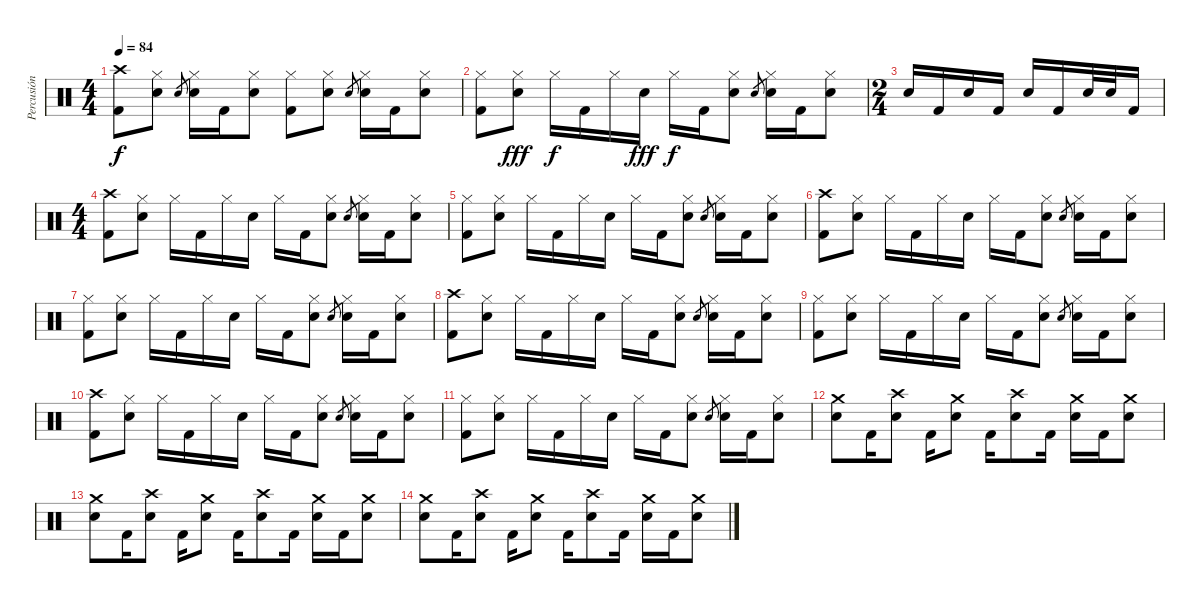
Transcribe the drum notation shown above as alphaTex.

\track ("Percusión" "Percusión") {instrument percussion}
\staff {score}
\articulation defaults
\ts (4 4)
\tempo 84
\clef neutral
\ks c
("Kick (hit) 2" "Crash high (hit)").8{dy f} ("Electric Snare (hit)" "Hi-Hat (closed)").8 "Electric Snare (hit)".8{gr} ("Electric Snare (hit)" "Hi-Hat (closed)").16 "Kick (hit) 2".16 ("Electric Snare (hit)" "Hi-Hat (closed)").8 ("Kick (hit) 2" "Hi-Hat (closed)").8 ("Electric Snare (hit)" "Hi-Hat (closed)").8 "Electric Snare (hit)".8{gr} ("Electric Snare (hit)" "Hi-Hat (closed)").16 "Kick (hit) 2".16 ("Electric Snare (hit)" "Hi-Hat (closed)").8 |
("Kick (hit) 2" "Hi-Hat (closed)").8 ("Electric Snare (hit)" "Hi-Hat (closed)").8{dy fff} "Hi-Hat (closed)".16{dy f} "Kick (hit) 2".16 "Hi-Hat (closed)".16 "Electric Snare (hit)".16{dy fff} "Hi-Hat (closed)".16{dy f} "Kick (hit) 2".16 ("Electric Snare (hit)" "Hi-Hat (closed)").8 "Electric Snare (hit)".8{gr} ("Electric Snare (hit)" "Hi-Hat (closed)").16 "Kick (hit) 2".16 ("Electric Snare (hit)" "Hi-Hat (closed)").8 |
\ts (2 4)
"Electric Snare (hit)".16 "Kick (hit) 2".16 "Electric Snare (hit)".16 "Kick (hit) 2".16 "Electric Snare (hit)".16 "Kick (hit) 2".16 "Electric Snare (hit)".32 "Electric Snare (hit)".32 "Kick (hit) 2".16 |
\ts (4 4)
("Kick (hit) 2" "Crash high (hit)").8 ("Electric Snare (hit)" "Hi-Hat (closed)").8 "Hi-Hat (closed)".16 "Kick (hit) 2".16 "Hi-Hat (closed)".16 "Electric Snare (hit)".16 "Hi-Hat (closed)".16 "Kick (hit) 2".16 ("Electric Snare (hit)" "Hi-Hat (closed)").8 "Electric Snare (hit)".8{gr} ("Electric Snare (hit)" "Hi-Hat (closed)").16 "Kick (hit) 2".16 ("Electric Snare (hit)" "Hi-Hat (closed)").8 |
("Kick (hit) 2" "Hi-Hat (closed)").8 ("Electric Snare (hit)" "Hi-Hat (closed)").8 "Hi-Hat (closed)".16 "Kick (hit) 2".16 "Hi-Hat (closed)".16 "Electric Snare (hit)".16 "Hi-Hat (closed)".16 "Kick (hit) 2".16 ("Electric Snare (hit)" "Hi-Hat (closed)").8 "Electric Snare (hit)".8{gr} ("Electric Snare (hit)" "Hi-Hat (closed)").16 "Kick (hit) 2".16 ("Electric Snare (hit)" "Hi-Hat (closed)").8 |
("Kick (hit) 2" "Crash high (hit)").8 ("Electric Snare (hit)" "Hi-Hat (closed)").8 "Hi-Hat (closed)".16 "Kick (hit) 2".16 "Hi-Hat (closed)".16 "Electric Snare (hit)".16 "Hi-Hat (closed)".16 "Kick (hit) 2".16 ("Electric Snare (hit)" "Hi-Hat (closed)").8 "Electric Snare (hit)".8{gr} ("Electric Snare (hit)" "Hi-Hat (closed)").16 "Kick (hit) 2".16 ("Electric Snare (hit)" "Hi-Hat (closed)").8 |
("Kick (hit) 2" "Hi-Hat (closed)").8 ("Electric Snare (hit)" "Hi-Hat (closed)").8 "Hi-Hat (closed)".16 "Kick (hit) 2".16 "Hi-Hat (closed)".16 "Electric Snare (hit)".16 "Hi-Hat (closed)".16 "Kick (hit) 2".16 ("Electric Snare (hit)" "Hi-Hat (closed)").8 "Electric Snare (hit)".8{gr} ("Electric Snare (hit)" "Hi-Hat (closed)").16 "Kick (hit) 2".16 ("Electric Snare (hit)" "Hi-Hat (closed)").8 |
("Kick (hit) 2" "Crash high (hit)").8 ("Electric Snare (hit)" "Hi-Hat (closed)").8 "Hi-Hat (closed)".16 "Kick (hit) 2".16 "Hi-Hat (closed)".16 "Electric Snare (hit)".16 "Hi-Hat (closed)".16 "Kick (hit) 2".16 ("Electric Snare (hit)" "Hi-Hat (closed)").8 "Electric Snare (hit)".8{gr} ("Electric Snare (hit)" "Hi-Hat (closed)").16 "Kick (hit) 2".16 ("Electric Snare (hit)" "Hi-Hat (closed)").8 |
("Kick (hit) 2" "Hi-Hat (closed)").8 ("Electric Snare (hit)" "Hi-Hat (closed)").8 "Hi-Hat (closed)".16 "Kick (hit) 2".16 "Hi-Hat (closed)".16 "Electric Snare (hit)".16 "Hi-Hat (closed)".16 "Kick (hit) 2".16 ("Electric Snare (hit)" "Hi-Hat (closed)").8 "Electric Snare (hit)".8{gr} ("Electric Snare (hit)" "Hi-Hat (closed)").16 "Kick (hit) 2".16 ("Electric Snare (hit)" "Hi-Hat (closed)").8 |
("Kick (hit) 2" "Crash high (hit)").8 ("Electric Snare (hit)" "Hi-Hat (closed)").8 "Hi-Hat (closed)".16 "Kick (hit) 2".16 "Hi-Hat (closed)".16 "Electric Snare (hit)".16 "Hi-Hat (closed)".16 "Kick (hit) 2".16 ("Electric Snare (hit)" "Hi-Hat (closed)").8 "Electric Snare (hit)".8{gr} ("Electric Snare (hit)" "Hi-Hat (closed)").16 "Kick (hit) 2".16 ("Electric Snare (hit)" "Hi-Hat (closed)").8 |
("Kick (hit) 2" "Hi-Hat (closed)").8 ("Electric Snare (hit)" "Hi-Hat (closed)").8 "Hi-Hat (closed)".16 "Kick (hit) 2".16 "Hi-Hat (closed)".16 "Electric Snare (hit)".16 "Hi-Hat (closed)".16 "Kick (hit) 2".16 ("Electric Snare (hit)" "Hi-Hat (closed)").8 "Electric Snare (hit)".8{gr} ("Electric Snare (hit)" "Hi-Hat (closed)").16 "Kick (hit) 2".16 ("Electric Snare (hit)" "Hi-Hat (closed)").8 |
("Electric Snare (hit)" "Crash medium (hit)").8 "Kick (hit) 2".16 ("Electric Snare (hit)" "Crash high (hit)").8 "Kick (hit) 2".16 ("Electric Snare (hit)" "Crash medium (hit)").8 "Kick (hit) 2".16 ("Electric Snare (hit)" "Crash high (hit)").8 "Kick (hit) 2".16 ("Electric Snare (hit)" "Crash medium (hit)").16 "Kick (hit) 2".16 ("Electric Snare (hit)" "Crash medium (hit)").8 |
("Electric Snare (hit)" "Crash medium (hit)").8 "Kick (hit) 2".16 ("Electric Snare (hit)" "Crash high (hit)").8 "Kick (hit) 2".16 ("Electric Snare (hit)" "Crash medium (hit)").8 "Kick (hit) 2".16 ("Electric Snare (hit)" "Crash high (hit)").8 "Kick (hit) 2".16 ("Electric Snare (hit)" "Crash medium (hit)").16 "Kick (hit) 2".16 ("Electric Snare (hit)" "Crash medium (hit)").8 |
("Electric Snare (hit)" "Crash medium (hit)").8 "Kick (hit) 2".16 ("Electric Snare (hit)" "Crash high (hit)").8 "Kick (hit) 2".16 ("Electric Snare (hit)" "Crash medium (hit)").8 "Kick (hit) 2".16 ("Electric Snare (hit)" "Crash high (hit)").8 "Kick (hit) 2".16 ("Electric Snare (hit)" "Crash medium (hit)").16 "Kick (hit) 2".16 ("Electric Snare (hit)" "Crash medium (hit)").8
